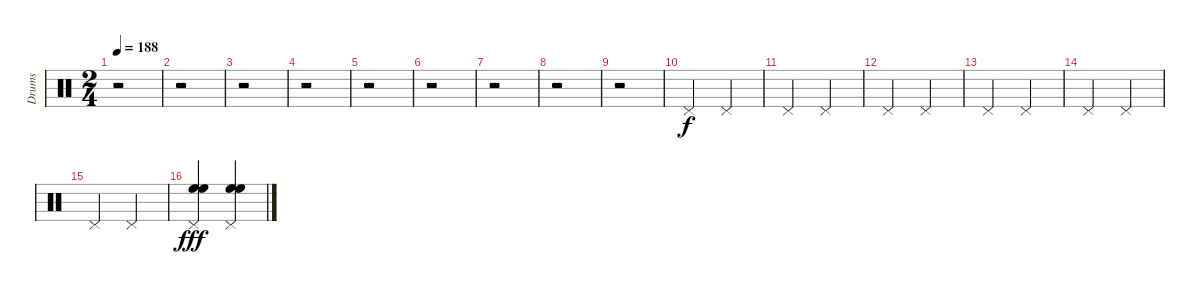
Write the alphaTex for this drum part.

\track ("Drums" "Drums") {instrument percussion}
\staff {score}
\articulation defaults
\ts (2 4)
\tempo 188
\clef neutral
\ks c
r.2{dy f} |
r.2 |
r.2 |
r.2 |
r.2 |
r.2 |
r.2 |
r.2 |
r.2 |
"Pedal Hi-Hat (hit)".4 "Pedal Hi-Hat (hit)".4 |
"Pedal Hi-Hat (hit)".4 "Pedal Hi-Hat (hit)".4 |
"Pedal Hi-Hat (hit)".4 "Pedal Hi-Hat (hit)".4 |
"Pedal Hi-Hat (hit)".4 "Pedal Hi-Hat (hit)".4 |
"Pedal Hi-Hat (hit)".4 "Pedal Hi-Hat (hit)".4 |
"Pedal Hi-Hat (hit)".4 "Pedal Hi-Hat (hit)".4 |
("High Floor Tom (hit)" "High Floor Tom (hit)" "Pedal Hi-Hat (hit)").4{dy fff} ("High Floor Tom (hit)" "High Floor Tom (hit)" "Pedal Hi-Hat (hit)").4
